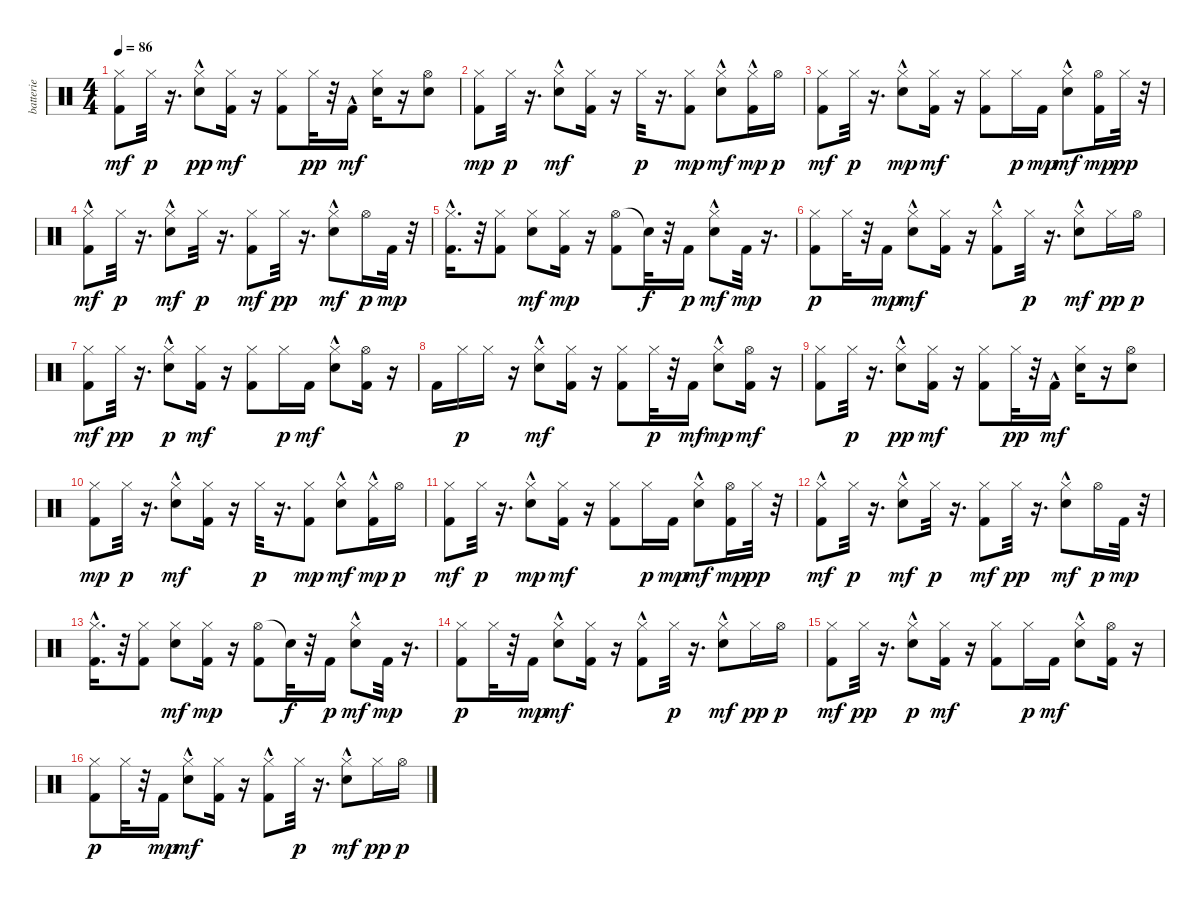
\track ("batterie" "batterie") {instrument percussion}
\staff {score}
\articulation defaults
\ts (4 4)
\tempo 86
\clef neutral
\ks c
("Hi-Hat (closed)" "Kick (hit) 2").8{dy mf} "Hi-Hat (closed)".32{dy p} r.16{d} ("Hi-Hat (closed)" "Snare (hit) 2"{hac}).8{dy pp} ("Hi-Hat (closed)" "Kick (hit) 2").16{dy mf} r.16 ("Hi-Hat (closed)" "Kick (hit) 2").8 "Hi-Hat (closed)".32{dy pp} r.32 "Kick (hit) 2"{hac}.16{dy mf} ("Hi-Hat (closed)" "Snare (hit) 2").16 r.16 ("Hi-Hat (open)" "Snare (hit) 2").8 |
("Hi-Hat (closed)" "Kick (hit) 2").8{dy mp} "Hi-Hat (closed)".32{dy p} r.16{d} ("Hi-Hat (closed)" "Snare (hit) 2"{hac}).8{dy mf} ("Hi-Hat (closed)" "Kick (hit) 2").16 r.16 "Hi-Hat (closed)".32{dy p} r.16{d} ("Hi-Hat (closed)" "Kick (hit) 2").8{dy mp} ("Hi-Hat (closed)" "Snare (hit) 2"{hac}).8{dy mf} ("Hi-Hat (closed)"{hac} "Kick (hit) 2").16{dy mp} "Hi-Hat (open)".16{dy p} |
("Hi-Hat (closed)" "Kick (hit) 2").8{dy mf} "Hi-Hat (closed)".32{dy p} r.16{d} ("Hi-Hat (closed)" "Snare (hit) 2"{hac}).8{dy mp} ("Hi-Hat (closed)" "Kick (hit) 2").16{dy mf} r.16 ("Hi-Hat (closed)" "Kick (hit) 2").8 "Hi-Hat (closed)".16{dy p} "Kick (hit) 2".16{dy mp} ("Hi-Hat (closed)" "Snare (hit) 2"{hac}).8{dy mf} ("Hi-Hat (open)" "Kick (hit) 2").16{dy mp} "Hi-Hat (closed)".32{dy pp} r.32 |
("Hi-Hat (closed)" "Kick (hit) 2"{hac}).8{dy mf} "Hi-Hat (closed)".32{dy p} r.16{d} ("Hi-Hat (closed)" "Snare (hit) 2"{hac}).8{dy mf} "Hi-Hat (closed)".32{dy p} r.16{d} ("Hi-Hat (closed)" "Kick (hit) 2").8{dy mf} "Hi-Hat (closed)".32{dy pp} r.16{d} ("Hi-Hat (closed)" "Snare (hit) 2"{hac}).8{dy mf} "Hi-Hat (open)".16{dy p} "Kick (hit) 2".32{dy mp} r.32 |
("Hi-Hat (closed)" "Kick (hit) 2"{hac}).16{d} r.32 ("Hi-Hat (closed)" "Kick (hit) 2").8 ("Hi-Hat (closed)" "Snare (hit) 2").8{dy mf} ("Hi-Hat (closed)" "Kick (hit) 2").16{dy mp} r.16 ("Hi-Hat (open)" "Kick (hit) 2").8 "Snare (hit)"{t}.32{dy f} r.32 "Kick (hit) 2".16{dy p} ("Hi-Hat (closed)" "Snare (hit) 2"{hac}).8{dy mf} "Kick (hit) 2".32{dy mp} r.16{d} |
("Hi-Hat (closed)" "Kick (hit) 2").8{dy p} "Hi-Hat (closed)".32 r.32 "Kick (hit) 2".16{dy mp} ("Hi-Hat (closed)" "Snare (hit) 2"{hac}).8{dy mf} ("Hi-Hat (closed)" "Kick (hit) 2").16 r.16 ("Hi-Hat (closed)" "Kick (hit) 2"{hac}).8 "Hi-Hat (closed)".32{dy p} r.16{d} ("Hi-Hat (closed)" "Snare (hit) 2"{hac}).8{dy mf} "Hi-Hat (closed)".16{dy pp} "Hi-Hat (open)".16{dy p} |
("Hi-Hat (closed)" "Kick (hit) 2").8{dy mf} "Hi-Hat (closed)".32{dy pp} r.16{d} ("Hi-Hat (closed)" "Snare (hit) 2"{hac}).8{dy p} ("Hi-Hat (closed)" "Kick (hit) 2").16{dy mf} r.16 ("Hi-Hat (closed)" "Kick (hit) 2").8 "Hi-Hat (closed)".16{dy p} "Kick (hit) 2".16{dy mf} ("Hi-Hat (closed)" "Snare (hit) 2"{hac}).8 ("Hi-Hat (open)" "Kick (hit) 2").16 r.16 |
"Kick (hit) 2".16 "Hi-Hat (closed)".16{dy p} "Hi-Hat (closed)".16 r.16 ("Hi-Hat (closed)" "Snare (hit) 2"{hac}).8{dy mf} ("Hi-Hat (closed)" "Kick (hit) 2").16 r.16 ("Hi-Hat (closed)" "Kick (hit) 2").8 "Hi-Hat (closed)".32{dy p} r.32 "Kick (hit) 2".16{dy mf} ("Hi-Hat (closed)" "Snare (hit) 2"{hac}).8{dy mp} ("Hi-Hat (open)" "Kick (hit) 2").16{dy mf} r.16 |
("Hi-Hat (closed)" "Kick (hit) 2").8 "Hi-Hat (closed)".32{dy p} r.16{d} ("Hi-Hat (closed)" "Snare (hit) 2"{hac}).8{dy pp} ("Hi-Hat (closed)" "Kick (hit) 2").16{dy mf} r.16 ("Hi-Hat (closed)" "Kick (hit) 2").8 "Hi-Hat (closed)".32{dy pp} r.32 "Kick (hit) 2"{hac}.16{dy mf} ("Hi-Hat (closed)" "Snare (hit) 2").16 r.16 ("Hi-Hat (open)" "Snare (hit) 2").8 |
("Hi-Hat (closed)" "Kick (hit) 2").8{dy mp} "Hi-Hat (closed)".32{dy p} r.16{d} ("Hi-Hat (closed)" "Snare (hit) 2"{hac}).8{dy mf} ("Hi-Hat (closed)" "Kick (hit) 2").16 r.16 "Hi-Hat (closed)".32{dy p} r.16{d} ("Hi-Hat (closed)" "Kick (hit) 2").8{dy mp} ("Hi-Hat (closed)" "Snare (hit) 2"{hac}).8{dy mf} ("Hi-Hat (closed)"{hac} "Kick (hit) 2").16{dy mp} "Hi-Hat (open)".16{dy p} |
("Hi-Hat (closed)" "Kick (hit) 2").8{dy mf} "Hi-Hat (closed)".32{dy p} r.16{d} ("Hi-Hat (closed)" "Snare (hit) 2"{hac}).8{dy mp} ("Hi-Hat (closed)" "Kick (hit) 2").16{dy mf} r.16 ("Hi-Hat (closed)" "Kick (hit) 2").8 "Hi-Hat (closed)".16{dy p} "Kick (hit) 2".16{dy mp} ("Hi-Hat (closed)" "Snare (hit) 2"{hac}).8{dy mf} ("Hi-Hat (open)" "Kick (hit) 2").16{dy mp} "Hi-Hat (closed)".32{dy pp} r.32 |
("Hi-Hat (closed)" "Kick (hit) 2"{hac}).8{dy mf} "Hi-Hat (closed)".32{dy p} r.16{d} ("Hi-Hat (closed)" "Snare (hit) 2"{hac}).8{dy mf} "Hi-Hat (closed)".32{dy p} r.16{d} ("Hi-Hat (closed)" "Kick (hit) 2").8{dy mf} "Hi-Hat (closed)".32{dy pp} r.16{d} ("Hi-Hat (closed)" "Snare (hit) 2"{hac}).8{dy mf} "Hi-Hat (open)".16{dy p} "Kick (hit) 2".32{dy mp} r.32 |
("Hi-Hat (closed)" "Kick (hit) 2"{hac}).16{d} r.32 ("Hi-Hat (closed)" "Kick (hit) 2").8 ("Hi-Hat (closed)" "Snare (hit) 2").8{dy mf} ("Hi-Hat (closed)" "Kick (hit) 2").16{dy mp} r.16 ("Hi-Hat (open)" "Kick (hit) 2").8 "Snare (hit)"{t}.32{dy f} r.32 "Kick (hit) 2".16{dy p} ("Hi-Hat (closed)" "Snare (hit) 2"{hac}).8{dy mf} "Kick (hit) 2".32{dy mp} r.16{d} |
("Hi-Hat (closed)" "Kick (hit) 2").8{dy p} "Hi-Hat (closed)".32 r.32 "Kick (hit) 2".16{dy mp} ("Hi-Hat (closed)" "Snare (hit) 2"{hac}).8{dy mf} ("Hi-Hat (closed)" "Kick (hit) 2").16 r.16 ("Hi-Hat (closed)" "Kick (hit) 2"{hac}).8 "Hi-Hat (closed)".32{dy p} r.16{d} ("Hi-Hat (closed)" "Snare (hit) 2"{hac}).8{dy mf} "Hi-Hat (closed)".16{dy pp} "Hi-Hat (open)".16{dy p} |
("Hi-Hat (closed)" "Kick (hit) 2").8{dy mf} "Hi-Hat (closed)".32{dy pp} r.16{d} ("Hi-Hat (closed)" "Snare (hit) 2"{hac}).8{dy p} ("Hi-Hat (closed)" "Kick (hit) 2").16{dy mf} r.16 ("Hi-Hat (closed)" "Kick (hit) 2").8 "Hi-Hat (closed)".16{dy p} "Kick (hit) 2".16{dy mf} ("Hi-Hat (closed)" "Snare (hit) 2"{hac}).8 ("Hi-Hat (open)" "Kick (hit) 2").16 r.16 |
("Hi-Hat (closed)" "Kick (hit) 2").8{dy p} "Hi-Hat (closed)".32 r.32 "Kick (hit) 2".16{dy mp} ("Hi-Hat (closed)" "Snare (hit) 2"{hac}).8{dy mf} ("Hi-Hat (closed)" "Kick (hit) 2").16 r.16 ("Hi-Hat (closed)" "Kick (hit) 2"{hac}).8 "Hi-Hat (closed)".32{dy p} r.16{d} ("Hi-Hat (closed)" "Snare (hit) 2"{hac}).8{dy mf} "Hi-Hat (closed)".16{dy pp} "Hi-Hat (open)".16{dy p}
